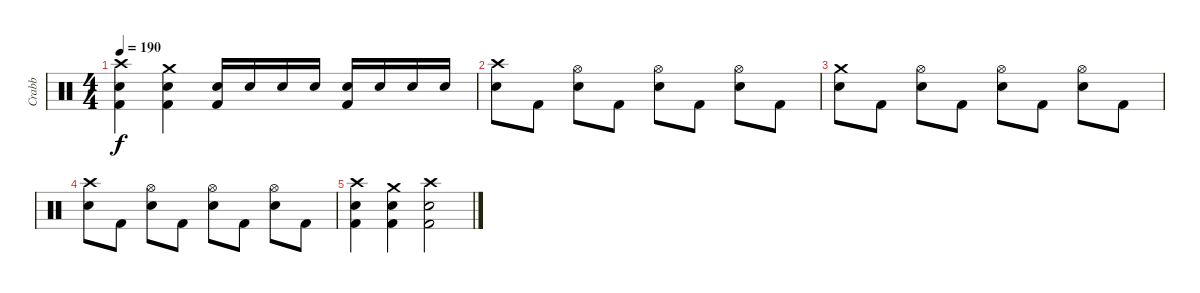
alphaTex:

\track ("Crabb" "Crabb") {instrument percussion}
\staff {score}
\articulation defaults
\ts (4 4)
\tempo 190
\clef neutral
\ks c
("Crash high (hit)" "Electric Snare (hit)" "Kick (hit) 2").4{dy f} ("Crash medium (hit)" "Electric Snare (hit)" "Kick (hit) 2").4 ("Electric Snare (hit)" "Kick (hit) 2").16 "Electric Snare (hit)".16 "Electric Snare (hit)".16 "Electric Snare (hit)".16 ("Electric Snare (hit)" "Kick (hit) 2").16 "Electric Snare (hit)".16 "Electric Snare (hit)".16 "Electric Snare (hit)".16 |
("Crash high (hit)" "Electric Snare (hit)").8 "Kick (hit) 2".8 ("Hi-Hat (open)" "Electric Snare (hit)").8 "Kick (hit) 2".8 ("Hi-Hat (open)" "Electric Snare (hit)").8 "Kick (hit) 2".8 ("Hi-Hat (open)" "Electric Snare (hit)").8 "Kick (hit) 2".8 |
("Crash medium (hit)" "Electric Snare (hit)").8 "Kick (hit) 2".8 ("Hi-Hat (open)" "Electric Snare (hit)").8 "Kick (hit) 2".8 ("Hi-Hat (open)" "Electric Snare (hit)").8 "Kick (hit) 2".8 ("Hi-Hat (open)" "Electric Snare (hit)").8 "Kick (hit) 2".8 |
("Crash high (hit)" "Electric Snare (hit)").8 "Kick (hit) 2".8 ("Hi-Hat (open)" "Electric Snare (hit)").8 "Kick (hit) 2".8 ("Hi-Hat (open)" "Electric Snare (hit)").8 "Kick (hit) 2".8 ("Hi-Hat (open)" "Electric Snare (hit)").8 "Kick (hit) 2".8 |
("Crash high (hit)" "Electric Snare (hit)" "Kick (hit) 2").4 ("Crash medium (hit)" "Electric Snare (hit)" "Kick (hit) 2").4 ("Crash high (hit)" "Electric Snare (hit)" "Kick (hit) 2").2
